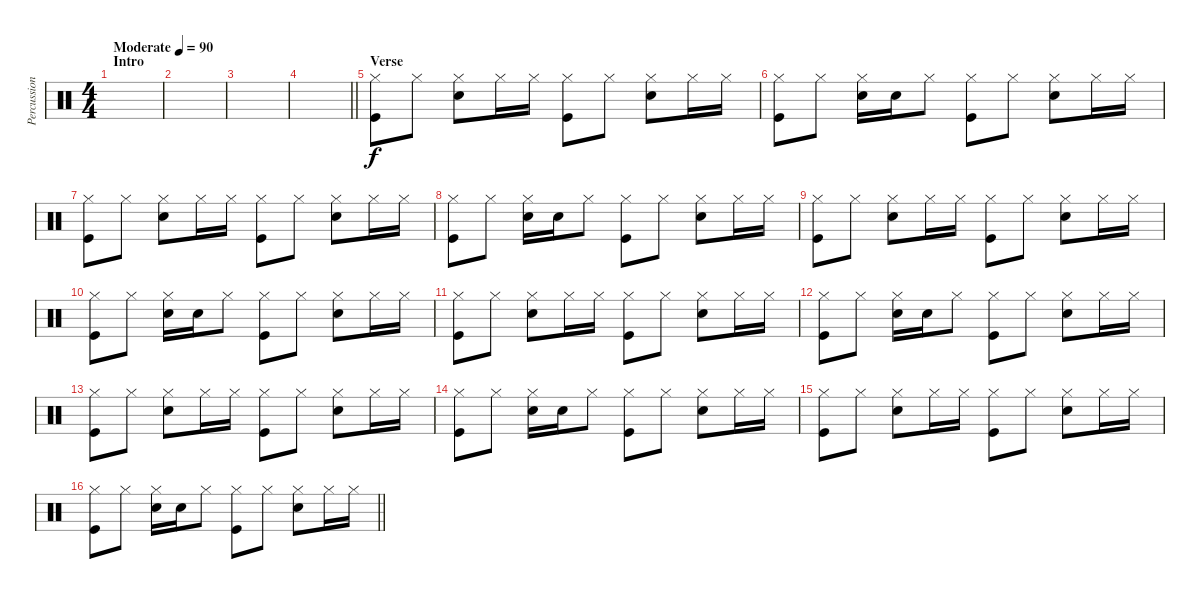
\track ("Percussion" "Percussion") {instrument percussion}
\staff {score}
\articulation defaults
\ts (4 4)
\section ("" "Intro")
\tempo (90 "Moderate")
\clef neutral
\ks c
|
|
|
\barLineRight lightlight
|
\section ("" "Verse")
("Hi-Hat (closed)" "Kick (hit)").8 "Hi-Hat (closed)".8 ("Hi-Hat (closed)" "Snare (hit) 2").8 "Hi-Hat (closed)".16 "Hi-Hat (closed)".16 ("Hi-Hat (closed)" "Kick (hit)").8 "Hi-Hat (closed)".8 ("Hi-Hat (closed)" "Snare (hit) 2").8 "Hi-Hat (closed)".16 "Hi-Hat (closed)".16 |
("Hi-Hat (closed)" "Kick (hit)").8 "Hi-Hat (closed)".8 ("Hi-Hat (closed)" "Snare (hit) 2").16 "Snare (hit) 2".16 "Hi-Hat (closed)".8 ("Hi-Hat (closed)" "Kick (hit)").8 "Hi-Hat (closed)".8 ("Hi-Hat (closed)" "Snare (hit) 2").8 "Hi-Hat (closed)".16 "Hi-Hat (closed)".16 |
("Hi-Hat (closed)" "Kick (hit)").8 "Hi-Hat (closed)".8 ("Hi-Hat (closed)" "Snare (hit) 2").8 "Hi-Hat (closed)".16 "Hi-Hat (closed)".16 ("Hi-Hat (closed)" "Kick (hit)").8 "Hi-Hat (closed)".8 ("Hi-Hat (closed)" "Snare (hit) 2").8 "Hi-Hat (closed)".16 "Hi-Hat (closed)".16 |
("Hi-Hat (closed)" "Kick (hit)").8 "Hi-Hat (closed)".8 ("Hi-Hat (closed)" "Snare (hit) 2").16 "Snare (hit) 2".16 "Hi-Hat (closed)".8 ("Hi-Hat (closed)" "Kick (hit)").8 "Hi-Hat (closed)".8 ("Hi-Hat (closed)" "Snare (hit) 2").8 "Hi-Hat (closed)".16 "Hi-Hat (closed)".16 |
("Hi-Hat (closed)" "Kick (hit)").8 "Hi-Hat (closed)".8 ("Hi-Hat (closed)" "Snare (hit) 2").8 "Hi-Hat (closed)".16 "Hi-Hat (closed)".16 ("Hi-Hat (closed)" "Kick (hit)").8 "Hi-Hat (closed)".8 ("Hi-Hat (closed)" "Snare (hit) 2").8 "Hi-Hat (closed)".16 "Hi-Hat (closed)".16 |
("Hi-Hat (closed)" "Kick (hit)").8 "Hi-Hat (closed)".8 ("Hi-Hat (closed)" "Snare (hit) 2").16 "Snare (hit) 2".16 "Hi-Hat (closed)".8 ("Hi-Hat (closed)" "Kick (hit)").8 "Hi-Hat (closed)".8 ("Hi-Hat (closed)" "Snare (hit) 2").8 "Hi-Hat (closed)".16 "Hi-Hat (closed)".16 |
("Hi-Hat (closed)" "Kick (hit)").8 "Hi-Hat (closed)".8 ("Hi-Hat (closed)" "Snare (hit) 2").8 "Hi-Hat (closed)".16 "Hi-Hat (closed)".16 ("Hi-Hat (closed)" "Kick (hit)").8 "Hi-Hat (closed)".8 ("Hi-Hat (closed)" "Snare (hit) 2").8 "Hi-Hat (closed)".16 "Hi-Hat (closed)".16 |
("Hi-Hat (closed)" "Kick (hit)").8 "Hi-Hat (closed)".8 ("Hi-Hat (closed)" "Snare (hit) 2").16 "Snare (hit) 2".16 "Hi-Hat (closed)".8 ("Hi-Hat (closed)" "Kick (hit)").8 "Hi-Hat (closed)".8 ("Hi-Hat (closed)" "Snare (hit) 2").8 "Hi-Hat (closed)".16 "Hi-Hat (closed)".16 |
("Hi-Hat (closed)" "Kick (hit)").8 "Hi-Hat (closed)".8 ("Hi-Hat (closed)" "Snare (hit) 2").8 "Hi-Hat (closed)".16 "Hi-Hat (closed)".16 ("Hi-Hat (closed)" "Kick (hit)").8 "Hi-Hat (closed)".8 ("Hi-Hat (closed)" "Snare (hit) 2").8 "Hi-Hat (closed)".16 "Hi-Hat (closed)".16 |
("Hi-Hat (closed)" "Kick (hit)").8 "Hi-Hat (closed)".8 ("Hi-Hat (closed)" "Snare (hit) 2").16 "Snare (hit) 2".16 "Hi-Hat (closed)".8 ("Hi-Hat (closed)" "Kick (hit)").8 "Hi-Hat (closed)".8 ("Hi-Hat (closed)" "Snare (hit) 2").8 "Hi-Hat (closed)".16 "Hi-Hat (closed)".16 |
("Hi-Hat (closed)" "Kick (hit)").8 "Hi-Hat (closed)".8 ("Hi-Hat (closed)" "Snare (hit) 2").8 "Hi-Hat (closed)".16 "Hi-Hat (closed)".16 ("Hi-Hat (closed)" "Kick (hit)").8 "Hi-Hat (closed)".8 ("Hi-Hat (closed)" "Snare (hit) 2").8 "Hi-Hat (closed)".16 "Hi-Hat (closed)".16 |
\barLineRight lightlight
("Hi-Hat (closed)" "Kick (hit)").8 "Hi-Hat (closed)".8 ("Hi-Hat (closed)" "Snare (hit) 2").16 "Snare (hit) 2".16 "Hi-Hat (closed)".8 ("Hi-Hat (closed)" "Kick (hit)").8 "Hi-Hat (closed)".8 ("Hi-Hat (closed)" "Snare (hit) 2").8 "Hi-Hat (closed)".16 "Hi-Hat (closed)".16
